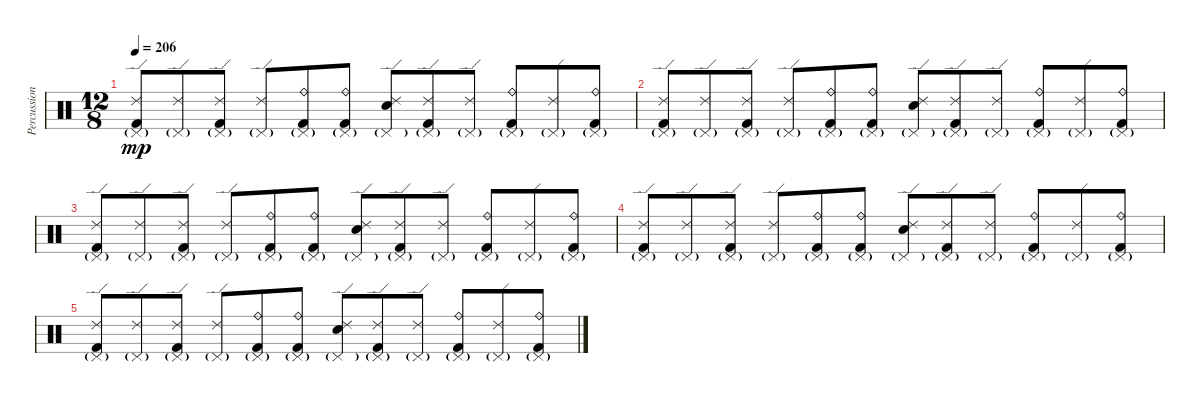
\track ("Percussion" "Percussion") {instrument percussion}
\staff {score}
\articulation defaults
\ts (12 8)
\tempo 206
\clef neutral
\ks c
("Ride (edge) 2" "Pedal Hi-Hat (hit)"{g} "Kick (hit) 2").8{dy mp} ("Ride (edge) 2" "Pedal Hi-Hat (hit)"{g}).8 ("Ride (edge) 2" "Pedal Hi-Hat (hit)"{g} "Kick (hit) 2").8 ("Ride (edge) 2" "Pedal Hi-Hat (hit)"{g}).8 ("Ride (bell)" "Pedal Hi-Hat (hit)"{g} "Kick (hit) 2").8 ("Ride (bell)" "Pedal Hi-Hat (hit)"{g} "Kick (hit) 2").8 ("Ride (edge) 2" "Pedal Hi-Hat (hit)"{g} "Electric Snare (hit)").8 ("Ride (edge) 2" "Pedal Hi-Hat (hit)"{g} "Kick (hit) 2").8 ("Ride (edge) 2" "Pedal Hi-Hat (hit)"{g}).8 ("Ride (bell)" "Pedal Hi-Hat (hit)"{g} "Kick (hit) 2").8 ("Ride (edge) 2" "Pedal Hi-Hat (hit)"{g}).8 ("Ride (bell)" "Pedal Hi-Hat (hit)"{g} "Kick (hit) 2").8 |
("Ride (edge) 2" "Pedal Hi-Hat (hit)"{g} "Kick (hit) 2").8 ("Ride (edge) 2" "Pedal Hi-Hat (hit)"{g}).8 ("Ride (edge) 2" "Pedal Hi-Hat (hit)"{g} "Kick (hit) 2").8 ("Ride (edge) 2" "Pedal Hi-Hat (hit)"{g}).8 ("Ride (bell)" "Pedal Hi-Hat (hit)"{g} "Kick (hit) 2").8 ("Ride (bell)" "Pedal Hi-Hat (hit)"{g} "Kick (hit) 2").8 ("Ride (edge) 2" "Pedal Hi-Hat (hit)"{g} "Electric Snare (hit)").8 ("Ride (edge) 2" "Pedal Hi-Hat (hit)"{g} "Kick (hit) 2").8 ("Ride (edge) 2" "Pedal Hi-Hat (hit)"{g}).8 ("Ride (bell)" "Pedal Hi-Hat (hit)"{g} "Kick (hit) 2").8 ("Ride (edge) 2" "Pedal Hi-Hat (hit)"{g}).8 ("Ride (bell)" "Pedal Hi-Hat (hit)"{g} "Kick (hit) 2").8 |
("Ride (edge) 2" "Pedal Hi-Hat (hit)"{g} "Kick (hit) 2").8 ("Ride (edge) 2" "Pedal Hi-Hat (hit)"{g}).8 ("Ride (edge) 2" "Pedal Hi-Hat (hit)"{g} "Kick (hit) 2").8 ("Ride (edge) 2" "Pedal Hi-Hat (hit)"{g}).8 ("Ride (bell)" "Pedal Hi-Hat (hit)"{g} "Kick (hit) 2").8 ("Ride (bell)" "Pedal Hi-Hat (hit)"{g} "Kick (hit) 2").8 ("Ride (edge) 2" "Pedal Hi-Hat (hit)"{g} "Electric Snare (hit)").8 ("Ride (edge) 2" "Pedal Hi-Hat (hit)"{g} "Kick (hit) 2").8 ("Ride (edge) 2" "Pedal Hi-Hat (hit)"{g}).8 ("Ride (bell)" "Pedal Hi-Hat (hit)"{g} "Kick (hit) 2").8 ("Ride (edge) 2" "Pedal Hi-Hat (hit)"{g}).8 ("Ride (bell)" "Pedal Hi-Hat (hit)"{g} "Kick (hit) 2").8 |
("Ride (edge) 2" "Pedal Hi-Hat (hit)"{g} "Kick (hit) 2").8 ("Ride (edge) 2" "Pedal Hi-Hat (hit)"{g}).8 ("Ride (edge) 2" "Pedal Hi-Hat (hit)"{g} "Kick (hit) 2").8 ("Ride (edge) 2" "Pedal Hi-Hat (hit)"{g}).8 ("Ride (bell)" "Pedal Hi-Hat (hit)"{g} "Kick (hit) 2").8 ("Ride (bell)" "Pedal Hi-Hat (hit)"{g} "Kick (hit) 2").8 ("Ride (edge) 2" "Pedal Hi-Hat (hit)"{g} "Electric Snare (hit)").8 ("Ride (edge) 2" "Pedal Hi-Hat (hit)"{g} "Kick (hit) 2").8 ("Ride (edge) 2" "Pedal Hi-Hat (hit)"{g}).8 ("Ride (bell)" "Pedal Hi-Hat (hit)"{g} "Kick (hit) 2").8 ("Ride (edge) 2" "Pedal Hi-Hat (hit)"{g}).8 ("Ride (bell)" "Pedal Hi-Hat (hit)"{g} "Kick (hit) 2").8 |
("Ride (edge) 2" "Pedal Hi-Hat (hit)"{g} "Kick (hit) 2").8 ("Ride (edge) 2" "Pedal Hi-Hat (hit)"{g}).8 ("Ride (edge) 2" "Pedal Hi-Hat (hit)"{g} "Kick (hit) 2").8 ("Ride (edge) 2" "Pedal Hi-Hat (hit)"{g}).8 ("Ride (bell)" "Pedal Hi-Hat (hit)"{g} "Kick (hit) 2").8 ("Ride (bell)" "Pedal Hi-Hat (hit)"{g} "Kick (hit) 2").8 ("Ride (edge) 2" "Pedal Hi-Hat (hit)"{g} "Electric Snare (hit)").8 ("Ride (edge) 2" "Pedal Hi-Hat (hit)"{g} "Kick (hit) 2").8 ("Ride (edge) 2" "Pedal Hi-Hat (hit)"{g}).8 ("Ride (bell)" "Pedal Hi-Hat (hit)"{g} "Kick (hit) 2").8 ("Ride (edge) 2" "Pedal Hi-Hat (hit)"{g}).8 ("Ride (bell)" "Pedal Hi-Hat (hit)"{g} "Kick (hit) 2").8
